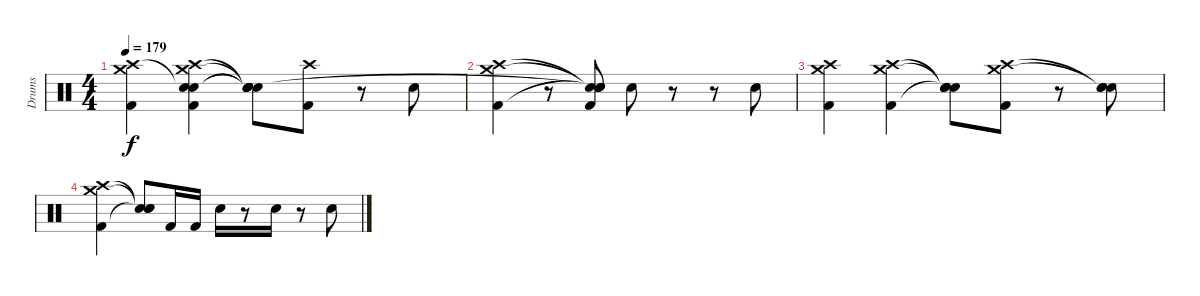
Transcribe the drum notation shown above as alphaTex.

\track ("Drums" "Drums") {instrument percussion}
\staff {score}
\articulation defaults
\ts (4 4)
\tempo 179
\clef neutral
\ks c
("Crash high (hit)" "Crash medium (hit)" "Kick (hit) 2").4{dy f} ("Snare (hit)"{t} "Crash high (hit)" "Crash medium (hit)" "Snare (hit)"{t} "Kick (hit) 2").4 ("Snare (hit)"{t} "Snare (hit)"{t} "Snare (hit)"{t} "Snare (hit)"{t} "Electric Snare (hit)").8 ("Crash high (hit)" "Kick (hit) 2").8 r.8 "Electric Snare (hit)".8 |
("Crash medium (hit)" "Crash high (hit)" "Kick (hit) 2").4 r.8 ("Snare (hit)"{t} "Snare (hit)"{t} "Snare (hit)"{t} "Snare (hit)"{t} "Kick (hit) 2").8 "Electric Snare (hit)".8 r.8 r.8 "Electric Snare (hit)".8 |
("Crash medium (hit)" "Crash high (hit)" "Kick (hit) 2").4 ("Crash medium (hit)" "Crash high (hit)" "Kick (hit) 2").4 ("Snare (hit)"{t} "Snare (hit)"{t} "Snare (hit)"{t} "Electric Snare (hit)").8 ("Crash medium (hit)" "Crash high (hit)" "Kick (hit) 2").8 r.8 ("Snare (hit)"{t} "Snare (hit)"{t} "Electric Snare (hit)").8 |
("Crash high (hit)" "Crash medium (hit)" "Kick (hit) 2").4 ("Snare (hit)"{t} "Snare (hit)"{t} "Snare (hit)"{t}).8 "Kick (hit) 2".16 "Kick (hit) 2".16 "Electric Snare (hit)".16 r.8 "Electric Snare (hit)".16 r.8 "Electric Snare (hit)".8
